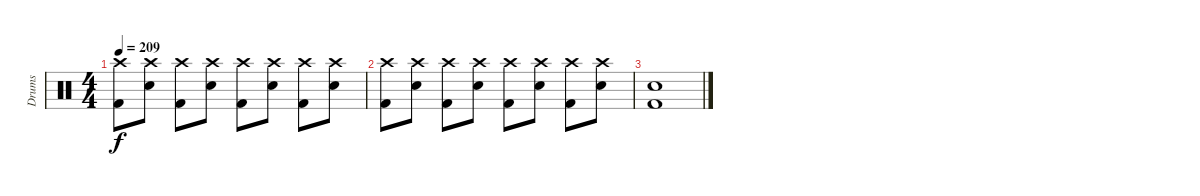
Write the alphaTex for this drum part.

\track ("Drums" "Drums") {instrument percussion}
\staff {score}
\articulation defaults
\ts (4 4)
\tempo 209
\clef neutral
\ks c
("Crash high (hit)" "Kick (hit) 2").8{dy f} ("Crash high (hit)" "Electric Snare (hit)").8 ("Crash high (hit)" "Kick (hit) 2").8 ("Crash high (hit)" "Electric Snare (hit)").8 ("Crash high (hit)" "Kick (hit) 2").8 ("Crash high (hit)" "Electric Snare (hit)").8 ("Crash high (hit)" "Kick (hit) 2").8 ("Crash high (hit)" "Electric Snare (hit)").8 |
("Crash high (hit)" "Kick (hit) 2").8 ("Crash high (hit)" "Electric Snare (hit)").8 ("Crash high (hit)" "Kick (hit) 2").8 ("Crash high (hit)" "Electric Snare (hit)").8 ("Crash high (hit)" "Kick (hit) 2").8 ("Crash high (hit)" "Electric Snare (hit)").8 ("Crash high (hit)" "Kick (hit) 2").8 ("Crash high (hit)" "Electric Snare (hit)").8 |
("Electric Snare (hit)" "Kick (hit) 2").1
